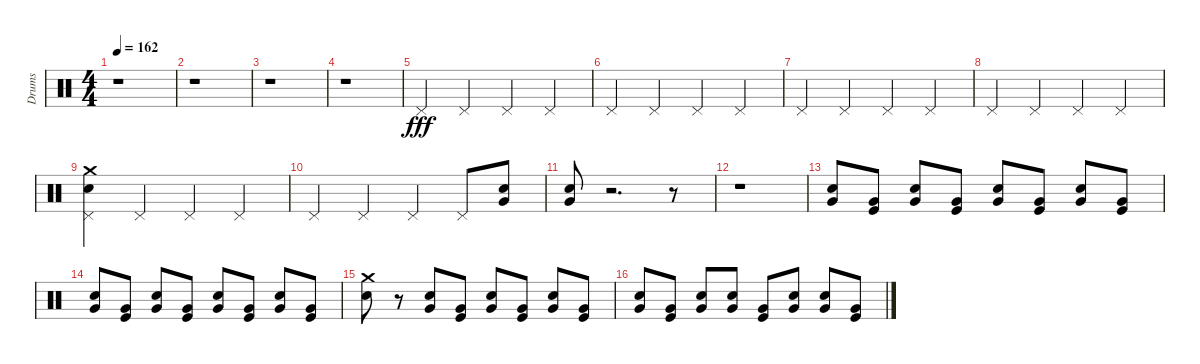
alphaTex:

\track ("Drums" "Drums") {instrument percussion}
\staff {score}
\articulation defaults
\ts (4 4)
\tempo 162
\clef neutral
\ks c
r.1{dy fff} |
r.1 |
r.1 |
r.1 |
"Pedal Hi-Hat (hit)".4 "Pedal Hi-Hat (hit)".4 "Pedal Hi-Hat (hit)".4 "Pedal Hi-Hat (hit)".4 |
"Pedal Hi-Hat (hit)".4 "Pedal Hi-Hat (hit)".4 "Pedal Hi-Hat (hit)".4 "Pedal Hi-Hat (hit)".4 |
"Pedal Hi-Hat (hit)".4 "Pedal Hi-Hat (hit)".4 "Pedal Hi-Hat (hit)".4 "Pedal Hi-Hat (hit)".4 |
"Pedal Hi-Hat (hit)".4 "Pedal Hi-Hat (hit)".4 "Pedal Hi-Hat (hit)".4 "Pedal Hi-Hat (hit)".4 |
("Snare (hit) 2" "Crash medium (hit)" "Pedal Hi-Hat (hit)").4 "Pedal Hi-Hat (hit)".4 "Pedal Hi-Hat (hit)".4 "Pedal Hi-Hat (hit)".4 |
"Pedal Hi-Hat (hit)".4 "Pedal Hi-Hat (hit)".4 "Pedal Hi-Hat (hit)".4 "Pedal Hi-Hat (hit)".8 ("Very Low Tom (hit)" "Snare (hit) 2").8 |
("Very Low Tom (hit)" "Snare (hit) 2").8 r.2{d} r.8 |
r.1 |
("Snare (hit) 2" "Very Low Tom (hit)").8 ("Kick (hit)" "Very Low Tom (hit)").8 ("Snare (hit) 2" "Very Low Tom (hit)").8 ("Kick (hit)" "Very Low Tom (hit)").8 ("Snare (hit) 2" "Very Low Tom (hit)").8 ("Kick (hit)" "Very Low Tom (hit)").8 ("Snare (hit) 2" "Very Low Tom (hit)").8 ("Kick (hit)" "Very Low Tom (hit)").8 |
("Snare (hit) 2" "Very Low Tom (hit)").8 ("Kick (hit)" "Very Low Tom (hit)").8 ("Snare (hit) 2" "Very Low Tom (hit)").8 ("Kick (hit)" "Very Low Tom (hit)").8 ("Snare (hit) 2" "Very Low Tom (hit)").8 ("Kick (hit)" "Very Low Tom (hit)").8 ("Snare (hit) 2" "Very Low Tom (hit)").8 ("Kick (hit)" "Very Low Tom (hit)").8 |
("Crash medium (hit)" "Snare (hit) 2").8 r.8 ("Snare (hit) 2" "Very Low Tom (hit)").8 ("Kick (hit)" "Very Low Tom (hit)").8 ("Snare (hit) 2" "Very Low Tom (hit)").8 ("Kick (hit)" "Very Low Tom (hit)").8 ("Snare (hit) 2" "Very Low Tom (hit)").8 ("Kick (hit)" "Very Low Tom (hit)").8 |
("Very Low Tom (hit)" "Snare (hit) 2").8 ("Very Low Tom (hit)" "Kick (hit)").8 ("Very Low Tom (hit)" "Snare (hit) 2").8 ("Very Low Tom (hit)" "Snare (hit) 2").8 ("Very Low Tom (hit)" "Kick (hit)").8 ("Very Low Tom (hit)" "Snare (hit) 2").8 ("Very Low Tom (hit)" "Snare (hit) 2").8 ("Very Low Tom (hit)" "Kick (hit)").8
